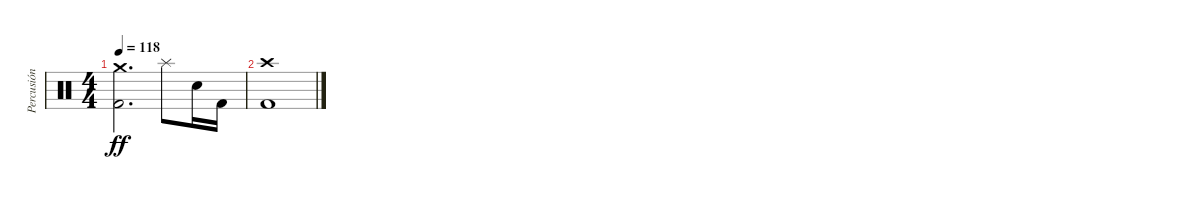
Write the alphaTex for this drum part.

\track ("Percusión" "Percusión") {instrument percussion}
\staff {score}
\articulation defaults
\ts (4 4)
\tempo 118
\clef neutral
\ks c
("Kick (hit) 2" "Crash medium (hit)").2{d dy ff} "Splash (hit)".8 "Snare (hit) 2".16 "Kick (hit) 2".16 |
("Kick (hit) 2" "Crash high (hit)").1
